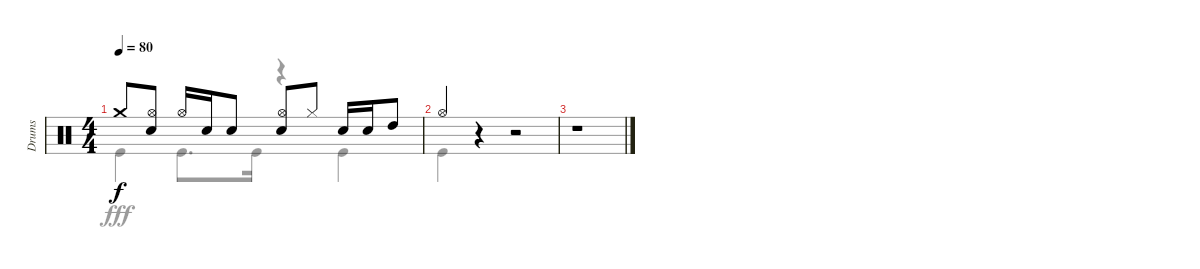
\track ("Drums" "Drums") {instrument percussion}
\staff {score}
\articulation defaults
\voice
\ts (4 4)
\tempo 80
\clef neutral
\ks c "Crash medium (hit)".8{dy f}
("Hi-Hat (open)" "Snare (hit) 2").8 "Hi-Hat (open)".16 "Snare (hit) 2".16 "Snare (hit) 2".8 ("Hi-Hat (open)" "Snare (hit) 2").8 "Hi-Hat (closed)".8 "Snare (hit) 2".16 "Snare (hit) 2".16 "High Tom (hit)".8 |
"Hi-Hat (open)".4 r.4 r.2 |
r.1
\voice
\clef neutral
\ottava regular
\simile none
\ks c "Kick (hit)".4{dy fff} "Kick (hit)".8{d} "Kick (hit)".16
r.4 "Kick (hit)".4 |
"Kick (hit)".4 r.4 r.2 |
r.1
